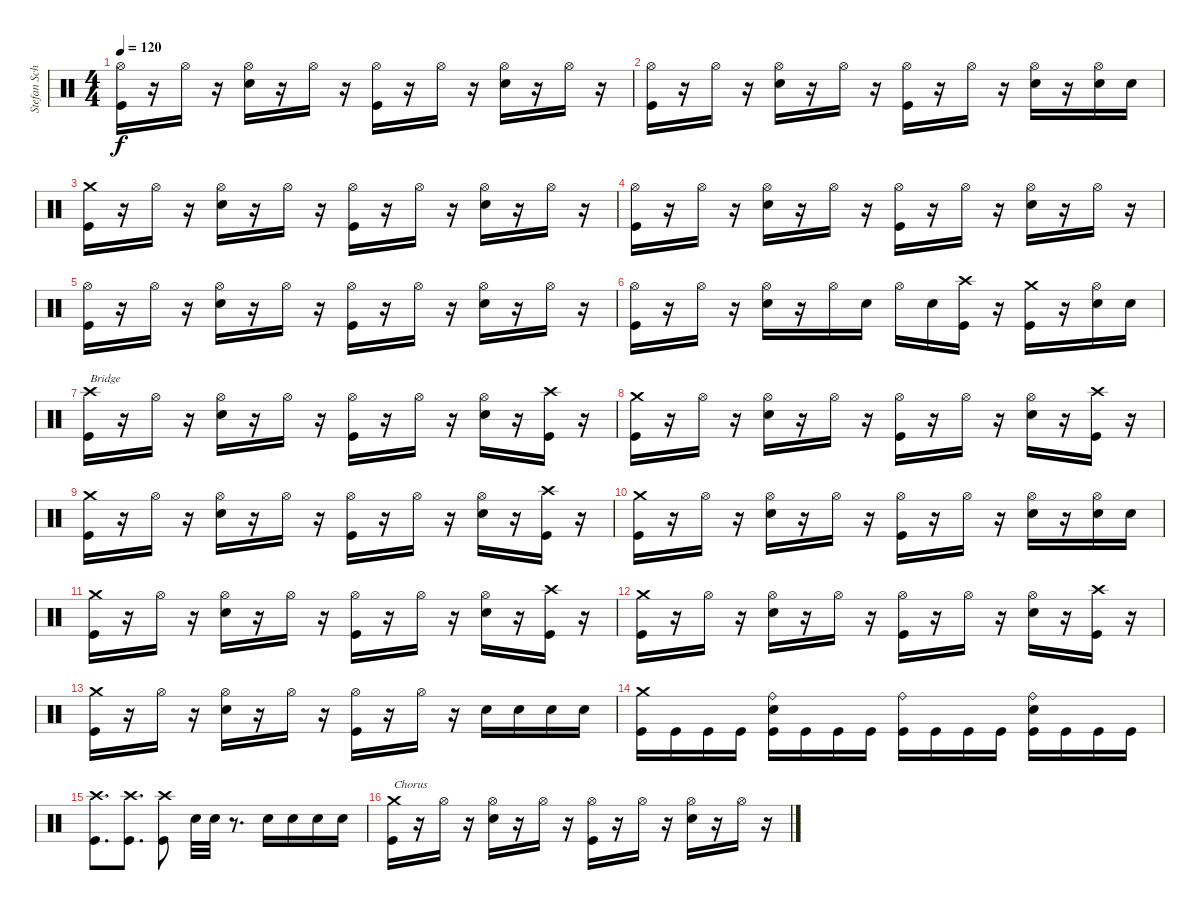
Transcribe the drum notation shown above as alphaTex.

\track ("Stefan Schwarzmann" "Stefan Sch") {instrument percussion}
\staff {score}
\articulation defaults
\ts (4 4)
\tempo 120
\clef neutral
\ks c
("Kick (hit)" "Hi-Hat (open)").16{dy f} r.16 "Hi-Hat (open)".16 r.16 ("Snare (hit) 2" "Hi-Hat (open)").16 r.16 "Hi-Hat (open)".16 r.16 ("Kick (hit)" "Hi-Hat (open)").16 r.16 "Hi-Hat (open)".16 r.16 ("Snare (hit) 2" "Hi-Hat (open)").16 r.16 "Hi-Hat (open)".16 r.16 |
("Kick (hit)" "Hi-Hat (open)").16 r.16 "Hi-Hat (open)".16 r.16 ("Snare (hit) 2" "Hi-Hat (open)").16 r.16 "Hi-Hat (open)".16 r.16 ("Kick (hit)" "Hi-Hat (open)").16 r.16 "Hi-Hat (open)".16 r.16 ("Snare (hit) 2" "Hi-Hat (open)").16 r.16 ("Hi-Hat (open)" "Snare (hit) 2").16 "Snare (hit) 2".16 |
("Kick (hit)" "Crash medium (hit)").16 r.16 "Hi-Hat (open)".16 r.16 ("Snare (hit) 2" "Hi-Hat (open)").16 r.16 "Hi-Hat (open)".16 r.16 ("Kick (hit)" "Hi-Hat (open)").16 r.16 "Hi-Hat (open)".16 r.16 ("Snare (hit) 2" "Hi-Hat (open)").16 r.16 "Hi-Hat (open)".16 r.16 |
("Kick (hit)" "Hi-Hat (open)").16 r.16 "Hi-Hat (open)".16 r.16 ("Snare (hit) 2" "Hi-Hat (open)").16 r.16 "Hi-Hat (open)".16 r.16 ("Kick (hit)" "Hi-Hat (open)").16 r.16 "Hi-Hat (open)".16 r.16 ("Snare (hit) 2" "Hi-Hat (open)").16 r.16 "Hi-Hat (open)".16 r.16 |
("Kick (hit)" "Hi-Hat (open)").16 r.16 "Hi-Hat (open)".16 r.16 ("Snare (hit) 2" "Hi-Hat (open)").16 r.16 "Hi-Hat (open)".16 r.16 ("Kick (hit)" "Hi-Hat (open)").16 r.16 "Hi-Hat (open)".16 r.16 ("Snare (hit) 2" "Hi-Hat (open)").16 r.16 "Hi-Hat (open)".16 r.16 |
("Kick (hit)" "Hi-Hat (open)").16 r.16 "Hi-Hat (open)".16 r.16 ("Snare (hit) 2" "Hi-Hat (open)").16 r.16 "Hi-Hat (open)".16 "Snare (hit) 2".16 "Hi-Hat (open)".16 "Snare (hit) 2".16 ("Crash high (hit)" "Kick (hit)").16 r.16 ("Crash medium (hit)" "Kick (hit)").16 r.16 ("Hi-Hat (open)" "Snare (hit) 2").16 "Snare (hit) 2".16 |
("Kick (hit)" "Crash high (hit)").16{txt "Bridge"} r.16 "Hi-Hat (open)".16 r.16 ("Snare (hit) 2" "Hi-Hat (open)").16 r.16 "Hi-Hat (open)".16 r.16 ("Kick (hit)" "Hi-Hat (open)").16 r.16 "Hi-Hat (open)".16 r.16 ("Snare (hit) 2" "Hi-Hat (open)").16 r.16 ("Crash high (hit)" "Kick (hit)").16 r.16 |
("Kick (hit)" "Crash medium (hit)").16 r.16 "Hi-Hat (open)".16 r.16 ("Snare (hit) 2" "Hi-Hat (open)").16 r.16 "Hi-Hat (open)".16 r.16 ("Kick (hit)" "Hi-Hat (open)").16 r.16 "Hi-Hat (open)".16 r.16 ("Snare (hit) 2" "Hi-Hat (open)").16 r.16 ("Crash high (hit)" "Kick (hit)").16 r.16 |
("Kick (hit)" "Crash medium (hit)").16 r.16 "Hi-Hat (open)".16 r.16 ("Snare (hit) 2" "Hi-Hat (open)").16 r.16 "Hi-Hat (open)".16 r.16 ("Kick (hit)" "Hi-Hat (open)").16 r.16 "Hi-Hat (open)".16 r.16 ("Snare (hit) 2" "Hi-Hat (open)").16 r.16 ("Crash high (hit)" "Kick (hit)").16 r.16 |
("Kick (hit)" "Crash medium (hit)").16 r.16 "Hi-Hat (open)".16 r.16 ("Snare (hit) 2" "Hi-Hat (open)").16 r.16 "Hi-Hat (open)".16 r.16 ("Kick (hit)" "Hi-Hat (open)").16 r.16 "Hi-Hat (open)".16 r.16 ("Snare (hit) 2" "Hi-Hat (open)").16 r.16 ("Hi-Hat (open)" "Snare (hit) 2").16 "Snare (hit) 2".16 |
("Kick (hit)" "Crash medium (hit)").16 r.16 "Hi-Hat (open)".16 r.16 ("Snare (hit) 2" "Hi-Hat (open)").16 r.16 "Hi-Hat (open)".16 r.16 ("Kick (hit)" "Hi-Hat (open)").16 r.16 "Hi-Hat (open)".16 r.16 ("Snare (hit) 2" "Hi-Hat (open)").16 r.16 ("Crash high (hit)" "Kick (hit)").16 r.16 |
("Kick (hit)" "Crash medium (hit)").16 r.16 "Hi-Hat (open)".16 r.16 ("Snare (hit) 2" "Hi-Hat (open)").16 r.16 "Hi-Hat (open)".16 r.16 ("Kick (hit)" "Hi-Hat (open)").16 r.16 "Hi-Hat (open)".16 r.16 ("Snare (hit) 2" "Hi-Hat (open)").16 r.16 ("Crash high (hit)" "Kick (hit)").16 r.16 |
("Kick (hit)" "Crash medium (hit)").16 r.16 "Hi-Hat (open)".16 r.16 ("Snare (hit) 2" "Hi-Hat (open)").16 r.16 "Hi-Hat (open)".16 r.16 ("Kick (hit)" "Hi-Hat (open)").16 r.16 "Hi-Hat (open)".16 r.16 "Snare (hit) 2".16 "Snare (hit) 2".16 "Snare (hit) 2".16 "Snare (hit) 2".16 |
("Kick (hit)" "Crash medium (hit)").16 "Kick (hit)".16 "Kick (hit)".16 "Kick (hit)".16 ("Snare (hit) 2" "Kick (hit)" "Ride (bell)").16 "Kick (hit)".16 "Kick (hit)".16 "Kick (hit)".16 ("Kick (hit)" "Ride (bell)").16 "Kick (hit)".16 "Kick (hit)".16 "Kick (hit)".16 ("Snare (hit) 2" "Kick (hit)" "Ride (bell)").16 "Kick (hit)".16 "Kick (hit)".16 "Kick (hit)".16 |
("Kick (hit)" "Crash high (hit)").8{d} ("Kick (hit)" "Crash high (hit)").8{d} ("Kick (hit)" "Crash high (hit)").8 "Snare (hit) 2".32 "Snare (hit) 2".32 r.8{d} "Snare (hit) 2".16 "Snare (hit) 2".16 "Snare (hit) 2".16 "Snare (hit) 2".16 |
("Kick (hit)" "Crash medium (hit)").16{txt "Chorus"} r.16 "Hi-Hat (open)".16 r.16 ("Snare (hit) 2" "Hi-Hat (open)").16 r.16 "Hi-Hat (open)".16 r.16 ("Kick (hit)" "Hi-Hat (open)").16 r.16 "Hi-Hat (open)".16 r.16 ("Snare (hit) 2" "Hi-Hat (open)").16 r.16 "Hi-Hat (open)".16 r.16
